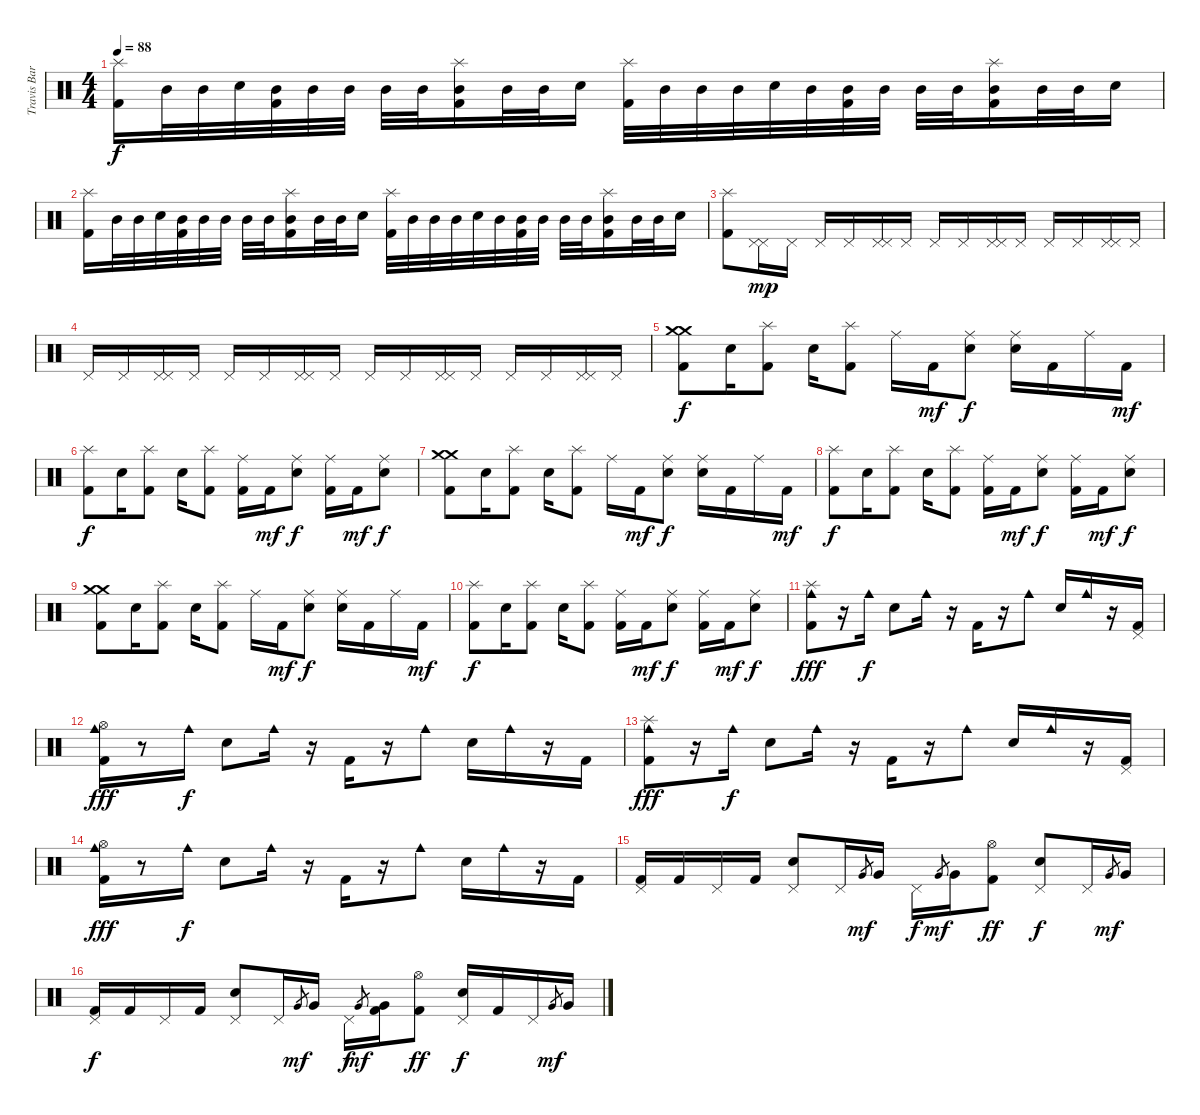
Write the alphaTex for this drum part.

\track ("Travis Barker - Drums" "Travis Bar") {instrument percussion}
\staff {score}
\articulation defaults
\ts (4 4)
\tempo 88
\clef neutral
\ks c
("Splash (hit)" "Kick (hit) 2").16{dy f} "Mid Tom (hit)".32 "Mid Tom (hit)".32 "Electric Snare (hit)".32 ("Mid Tom (hit)" "Kick (hit) 2").32 "Mid Tom (hit)".32 "Mid Tom (hit)".32 "Mid Tom (hit)".32 "Mid Tom (hit)".32 ("Splash (hit)" "Mid Tom (hit)" "Kick (hit) 2").16 "Mid Tom (hit)".32 "Mid Tom (hit)".32 "Electric Snare (hit)".16 ("Splash (hit)" "Kick (hit) 2").32 "Mid Tom (hit)".32 "Mid Tom (hit)".32 "Mid Tom (hit)".32 "Electric Snare (hit)".32 "Mid Tom (hit)".32 ("Mid Tom (hit)" "Kick (hit) 2").32 "Mid Tom (hit)".32 "Mid Tom (hit)".32 "Mid Tom (hit)".32 ("Splash (hit)" "Mid Tom (hit)" "Kick (hit) 2").16 "Mid Tom (hit)".32 "Mid Tom (hit)".32 "Electric Snare (hit)".16 |
("Splash (hit)" "Kick (hit) 2").16 "Mid Tom (hit)".32 "Mid Tom (hit)".32 "Electric Snare (hit)".32 ("Mid Tom (hit)" "Kick (hit) 2").32 "Mid Tom (hit)".32 "Mid Tom (hit)".32 "Mid Tom (hit)".32 "Mid Tom (hit)".32 ("Splash (hit)" "Mid Tom (hit)" "Kick (hit) 2").16 "Mid Tom (hit)".32 "Mid Tom (hit)".32 "Electric Snare (hit)".16 ("Splash (hit)" "Kick (hit) 2").32 "Mid Tom (hit)".32 "Mid Tom (hit)".32 "Mid Tom (hit)".32 "Electric Snare (hit)".32 "Mid Tom (hit)".32 ("Mid Tom (hit)" "Kick (hit) 2").32 "Mid Tom (hit)".32 "Mid Tom (hit)".32 "Mid Tom (hit)".32 ("Splash (hit)" "Mid Tom (hit)" "Kick (hit) 2").16 "Mid Tom (hit)".32 "Mid Tom (hit)".32 "Electric Snare (hit)".16 |
("Splash (hit)" "Kick (hit) 2").8{volume 10} ("Pedal Hi-Hat (hit)" "Pedal Hi-Hat (hit)").16{dy mp} "Pedal Hi-Hat (hit)".16 "Pedal Hi-Hat (hit)".16 "Pedal Hi-Hat (hit)".16 ("Pedal Hi-Hat (hit)" "Pedal Hi-Hat (hit)").16 "Pedal Hi-Hat (hit)".16 "Pedal Hi-Hat (hit)".16 "Pedal Hi-Hat (hit)".16 ("Pedal Hi-Hat (hit)" "Pedal Hi-Hat (hit)").16 "Pedal Hi-Hat (hit)".16 "Pedal Hi-Hat (hit)".16 "Pedal Hi-Hat (hit)".16 ("Pedal Hi-Hat (hit)" "Pedal Hi-Hat (hit)").16 "Pedal Hi-Hat (hit)".16 |
"Pedal Hi-Hat (hit)".16 "Pedal Hi-Hat (hit)".16 ("Pedal Hi-Hat (hit)" "Pedal Hi-Hat (hit)").16 "Pedal Hi-Hat (hit)".16 "Pedal Hi-Hat (hit)".16 "Pedal Hi-Hat (hit)".16 ("Pedal Hi-Hat (hit)" "Pedal Hi-Hat (hit)").16 "Pedal Hi-Hat (hit)".16 "Pedal Hi-Hat (hit)".16 "Pedal Hi-Hat (hit)".16 ("Pedal Hi-Hat (hit)" "Pedal Hi-Hat (hit)").16 "Pedal Hi-Hat (hit)".16 "Pedal Hi-Hat (hit)".16 "Pedal Hi-Hat (hit)".16 ("Pedal Hi-Hat (hit)" "Pedal Hi-Hat (hit)").16 "Pedal Hi-Hat (hit)".16 |
("Crash medium (hit)" "Crash medium (hit)" "Kick (hit) 2").8{dy f volume 14} "Electric Snare (hit)".16 ("Splash (hit)" "Kick (hit) 2").8 "Electric Snare (hit)".16 ("Splash (hit)" "Kick (hit) 2").8 "Ride (middle)".16 "Kick (hit) 2".16{dy mf} ("Ride (middle)" "Electric Snare (hit)").8{dy f} ("Ride (middle)" "Electric Snare (hit)").16 "Kick (hit) 2".16 "Ride (middle)".16 "Kick (hit) 2".16{dy mf} |
("Splash (hit)" "Kick (hit) 2").8{dy f} "Electric Snare (hit)".16 ("Splash (hit)" "Kick (hit) 2").8 "Electric Snare (hit)".16 ("Splash (hit)" "Kick (hit) 2").8 ("Ride (middle)" "Kick (hit) 2").16 "Kick (hit) 2".16{dy mf} ("Ride (middle)" "Electric Snare (hit)").8{dy f} ("Ride (middle)" "Kick (hit) 2").16 "Kick (hit) 2".16{dy mf} ("Ride (middle)" "Electric Snare (hit)").8{dy f} |
("Crash medium (hit)" "Crash medium (hit)" "Kick (hit) 2").8 "Electric Snare (hit)".16 ("Splash (hit)" "Kick (hit) 2").8 "Electric Snare (hit)".16 ("Splash (hit)" "Kick (hit) 2").8 "Ride (middle)".16 "Kick (hit) 2".16{dy mf} ("Ride (middle)" "Electric Snare (hit)").8{dy f} ("Ride (middle)" "Electric Snare (hit)").16 "Kick (hit) 2".16 "Ride (middle)".16 "Kick (hit) 2".16{dy mf} |
("Splash (hit)" "Kick (hit) 2").8{dy f} "Electric Snare (hit)".16 ("Splash (hit)" "Kick (hit) 2").8 "Electric Snare (hit)".16 ("Splash (hit)" "Kick (hit) 2").8 ("Ride (middle)" "Kick (hit) 2").16 "Kick (hit) 2".16{dy mf} ("Ride (middle)" "Electric Snare (hit)").8{dy f} ("Ride (middle)" "Kick (hit) 2").16 "Kick (hit) 2".16{dy mf} ("Ride (middle)" "Electric Snare (hit)").8{dy f} |
("Crash medium (hit)" "Crash medium (hit)" "Kick (hit) 2").8 "Electric Snare (hit)".16 ("Splash (hit)" "Kick (hit) 2").8 "Electric Snare (hit)".16 ("Splash (hit)" "Kick (hit) 2").8 "Ride (middle)".16 "Kick (hit) 2".16{dy mf} ("Ride (middle)" "Electric Snare (hit)").8{dy f} ("Ride (middle)" "Electric Snare (hit)").16 "Kick (hit) 2".16 "Ride (middle)".16 "Kick (hit) 2".16{dy mf} |
("Splash (hit)" "Kick (hit) 2").8{dy f} "Electric Snare (hit)".16 ("Splash (hit)" "Kick (hit) 2").8 "Electric Snare (hit)".16 ("Splash (hit)" "Kick (hit) 2").8 ("Ride (middle)" "Kick (hit) 2").16 "Kick (hit) 2".16{dy mf} ("Ride (middle)" "Electric Snare (hit)").8{dy f} ("Ride (middle)" "Kick (hit) 2").16 "Kick (hit) 2".16{dy mf} ("Ride (middle)" "Electric Snare (hit)").8{dy f} |
("Splash (hit)" "Cowbell medium (hit)" "Kick (hit) 2").8{dy fff} r.16 "Cowbell medium (hit)".16{dy f} "Electric Snare (hit)".8 "Cowbell medium (hit)".16 r.16 "Kick (hit) 2".16 r.16 "Cowbell medium (hit)".8 "Electric Snare (hit)".16 "Cowbell medium (hit)".16 r.16 ("Pedal Hi-Hat (hit)" "Kick (hit) 2").16 |
("Hi-Hat (open)" "Cowbell medium (hit)" "Kick (hit) 2").16{dy fff} r.8 "Cowbell medium (hit)".16{dy f} "Electric Snare (hit)".8 "Cowbell medium (hit)".16 r.16 "Kick (hit) 2".16 r.16 "Cowbell medium (hit)".8 "Electric Snare (hit)".16 "Cowbell medium (hit)".16 r.16 "Kick (hit) 2".16 |
("Splash (hit)" "Cowbell medium (hit)" "Kick (hit) 2").8{dy fff} r.16 "Cowbell medium (hit)".16{dy f} "Electric Snare (hit)".8 "Cowbell medium (hit)".16 r.16 "Kick (hit) 2".16 r.16 "Cowbell medium (hit)".8 "Electric Snare (hit)".16 "Cowbell medium (hit)".16 r.16 ("Pedal Hi-Hat (hit)" "Kick (hit) 2").16 |
("Hi-Hat (open)" "Cowbell medium (hit)" "Kick (hit) 2").16{dy fff} r.8 "Cowbell medium (hit)".16{dy f} "Electric Snare (hit)".8 "Cowbell medium (hit)".16 r.16 "Kick (hit) 2".16 r.16 "Cowbell medium (hit)".8 "Electric Snare (hit)".16 "Cowbell medium (hit)".16 r.16 "Kick (hit) 2".16 |
("Pedal Hi-Hat (hit)" "Kick (hit) 2").16 "Kick (hit) 2".16 "Pedal Hi-Hat (hit)".16 "Kick (hit) 2".16 ("Pedal Hi-Hat (hit)" "Electric Snare (hit)").8 "Pedal Hi-Hat (hit)".16 "Very Low Tom (hit)"{sl}.8{gr dy mf} "Very Low Tom (hit)".16 "Pedal Hi-Hat (hit)".16{dy f} "Very Low Tom (hit)"{sl}.8{gr dy mf} "Very Low Tom (hit)".16 ("Hi-Hat (open)" "Kick (hit) 2").8{dy ff} ("Pedal Hi-Hat (hit)" "Electric Snare (hit)").8{dy f} "Pedal Hi-Hat (hit)".16 "Very Low Tom (hit)"{sl}.8{gr dy mf} "Very Low Tom (hit)".16 |
("Pedal Hi-Hat (hit)" "Kick (hit) 2").16{dy f} "Kick (hit) 2".16 "Pedal Hi-Hat (hit)".16 "Kick (hit) 2".16 ("Pedal Hi-Hat (hit)" "Electric Snare (hit)").8 "Pedal Hi-Hat (hit)".16 "Very Low Tom (hit)"{sl}.8{gr dy mf} "Very Low Tom (hit)".16 "Pedal Hi-Hat (hit)".16{dy f} "Very Low Tom (hit)"{sl}.8{gr dy mf} ("Very Low Tom (hit)" "Kick (hit) 2").16 ("Hi-Hat (open)" "Kick (hit) 2").8{dy ff} ("Pedal Hi-Hat (hit)" "Electric Snare (hit)").16{dy f} "Kick (hit) 2".16 "Pedal Hi-Hat (hit)".16 "Very Low Tom (hit)"{sl}.8{gr dy mf} "Very Low Tom (hit)".16
